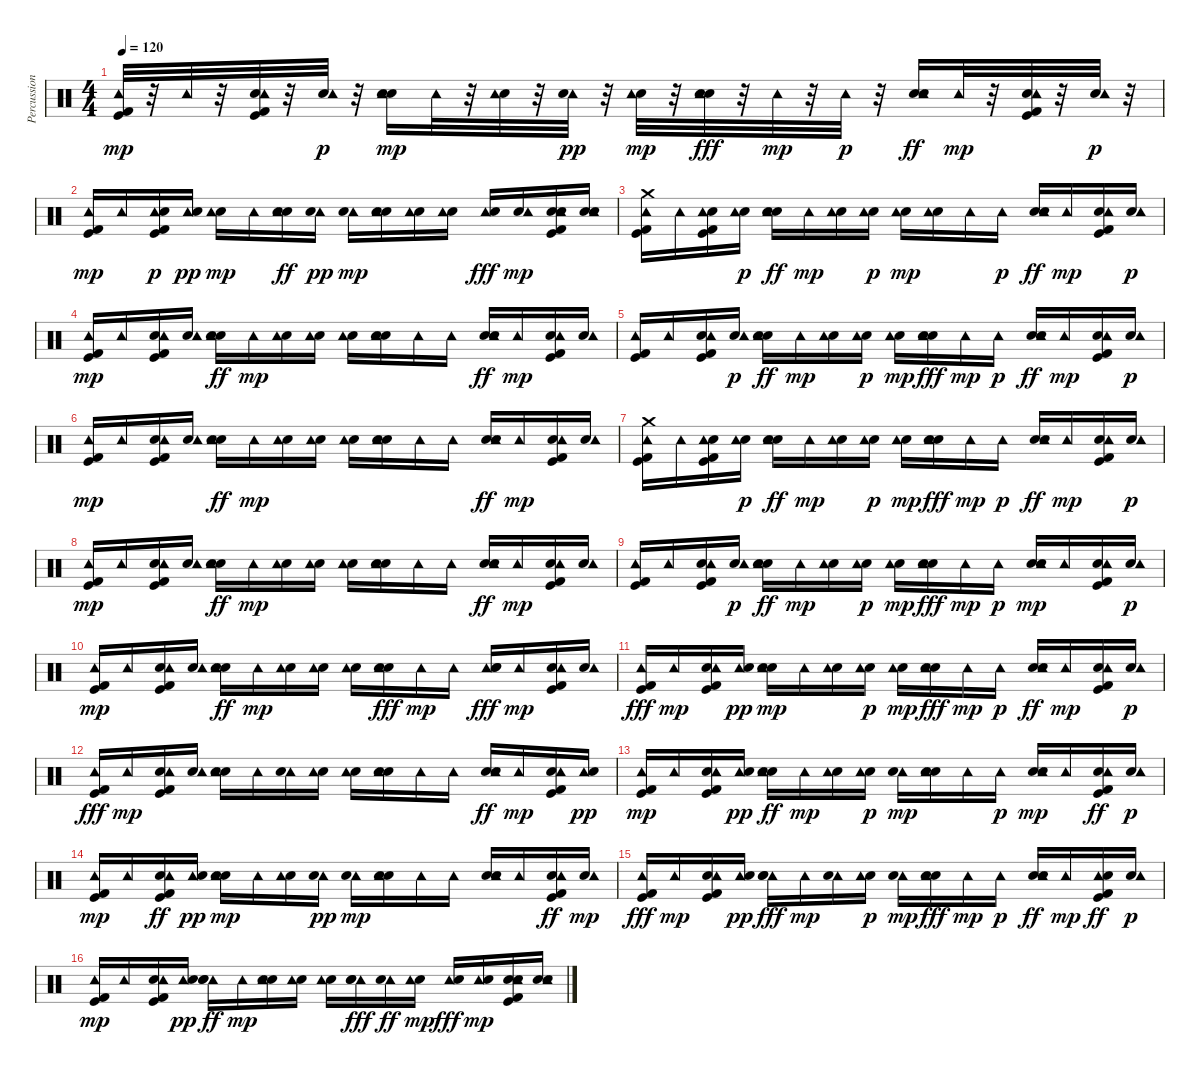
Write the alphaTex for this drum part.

\track ("Percussions" "Percussion") {instrument percussion}
\staff {score}
\articulation defaults
\ts (4 4)
\tempo 120
\clef neutral
\ks c
("Kick (hit) 2" "Kick (hit)" "Tambourine (hit)").32{dy mp} r.32 "Tambourine (hit)".32 r.32 ("Electric Snare (hit)" "Kick (hit)" "Kick (hit) 2" "Tambourine (hit)").32 r.32 ("Electric Snare (hit)" "Tambourine (hit)").32{dy p} r.32 ("Snare (hit) 2" "Electric Snare (hit)" "Tambourine (hit)").16{dy mp} "Tambourine (hit)".32 r.32 ("Electric Snare (hit)" "Tambourine (hit)").32 r.32 ("Tambourine (hit)" "Electric Snare (hit)").32{dy pp} r.32 ("Electric Snare (hit)" "Tambourine (hit)").32{dy mp} r.32 ("Electric Snare (hit)" "Tambourine (hit)" "Snare (hit) 2").32{dy fff} r.32 "Tambourine (hit)".32{dy mp} r.32 "Tambourine (hit)".32{dy p} r.32 ("Snare (hit) 2" "Tambourine (hit)" "Electric Snare (hit)").16{dy ff} "Tambourine (hit)".32{dy mp} r.32 ("Electric Snare (hit)" "Kick (hit) 2" "Kick (hit)" "Tambourine (hit)").32 r.32 ("Electric Snare (hit)" "Tambourine (hit)").32{dy p} r.32 |
("Kick (hit) 2" "Kick (hit)" "Tambourine (hit)").16{dy mp} "Tambourine (hit)".16 ("Tambourine (hit)" "Kick (hit) 2" "Kick (hit)" "Electric Snare (hit)").16{dy p} ("Tambourine (hit)" "Electric Snare (hit)").16{dy pp} ("Snare (hit) 2" "Tambourine (hit)").16{dy mp} "Tambourine (hit)".16 ("Electric Snare (hit)" "Tambourine (hit)" "Snare (hit) 2").16{dy ff} ("Tambourine (hit)" "Electric Snare (hit)").16{dy pp} ("Tambourine (hit)" "Electric Snare (hit)").16{dy mp} ("Snare (hit) 2" "Electric Snare (hit)" "Tambourine (hit)").16 ("Snare (hit) 2" "Tambourine (hit)").16 ("Snare (hit) 2" "Tambourine (hit)").16 ("Tambourine (hit)" "Snare (hit) 2").16{dy fff} ("Snare (hit) 2" "Tambourine (hit)").16{dy mp} ("Kick (hit) 2" "Electric Snare (hit)" "Snare (hit) 2" "Kick (hit)" "Tambourine (hit)").16 ("Snare (hit) 2" "Electric Snare (hit)" "Tambourine (hit)").16 |
("Kick (hit) 2" "Kick (hit)" "Crash medium (hit)" "Tambourine (hit)").16 "Tambourine (hit)".16 ("Electric Snare (hit)" "Kick (hit) 2" "Kick (hit)" "Tambourine (hit)").16 ("Electric Snare (hit)" "Tambourine (hit)").16{dy p} ("Snare (hit) 2" "Tambourine (hit)" "Electric Snare (hit)").16{dy ff} "Tambourine (hit)".16{dy mp} ("Electric Snare (hit)" "Tambourine (hit)").16 ("Electric Snare (hit)" "Tambourine (hit)").16{dy p} ("Electric Snare (hit)" "Tambourine (hit)").16{dy mp} ("Electric Snare (hit)" "Tambourine (hit)").16 "Tambourine (hit)".16 "Tambourine (hit)".16{dy p} ("Snare (hit) 2" "Tambourine (hit)" "Electric Snare (hit)").16{dy ff} "Tambourine (hit)".16{dy mp} ("Electric Snare (hit)" "Kick (hit) 2" "Kick (hit)" "Tambourine (hit)").16 ("Electric Snare (hit)" "Tambourine (hit)").16{dy p} |
("Kick (hit) 2" "Kick (hit)" "Tambourine (hit)").16{dy mp} "Tambourine (hit)".16 ("Electric Snare (hit)" "Kick (hit) 2" "Kick (hit)" "Tambourine (hit)").16 ("Electric Snare (hit)" "Tambourine (hit)").16 ("Snare (hit) 2" "Tambourine (hit)" "Electric Snare (hit)").16{dy ff} "Tambourine (hit)".16{dy mp} ("Electric Snare (hit)" "Tambourine (hit)").16 ("Electric Snare (hit)" "Tambourine (hit)").16 ("Electric Snare (hit)" "Tambourine (hit)").16 ("Electric Snare (hit)" "Snare (hit) 2" "Tambourine (hit)").16 "Tambourine (hit)".16 "Tambourine (hit)".16 ("Snare (hit) 2" "Tambourine (hit)" "Electric Snare (hit)").16{dy ff} "Tambourine (hit)".16{dy mp} ("Electric Snare (hit)" "Kick (hit) 2" "Kick (hit)" "Tambourine (hit)").16 ("Electric Snare (hit)" "Tambourine (hit)").16 |
("Kick (hit) 2" "Kick (hit)" "Tambourine (hit)").16 "Tambourine (hit)".16 ("Electric Snare (hit)" "Kick (hit) 2" "Kick (hit)" "Tambourine (hit)").16 ("Electric Snare (hit)" "Tambourine (hit)").16{dy p} ("Snare (hit) 2" "Tambourine (hit)" "Electric Snare (hit)").16{dy ff} "Tambourine (hit)".16{dy mp} ("Electric Snare (hit)" "Tambourine (hit)").16 ("Electric Snare (hit)" "Tambourine (hit)").16{dy p} ("Electric Snare (hit)" "Tambourine (hit)").16{dy mp} ("Electric Snare (hit)" "Tambourine (hit)" "Snare (hit) 2").16{dy fff} "Tambourine (hit)".16{dy mp} "Tambourine (hit)".16{dy p} ("Snare (hit) 2" "Tambourine (hit)" "Electric Snare (hit)").16{dy ff} "Tambourine (hit)".16{dy mp} ("Electric Snare (hit)" "Kick (hit) 2" "Kick (hit)" "Tambourine (hit)").16 ("Electric Snare (hit)" "Tambourine (hit)").16{dy p} |
("Kick (hit) 2" "Kick (hit)" "Tambourine (hit)").16{dy mp} "Tambourine (hit)".16 ("Electric Snare (hit)" "Kick (hit) 2" "Kick (hit)" "Tambourine (hit)").16 ("Electric Snare (hit)" "Tambourine (hit)").16 ("Snare (hit) 2" "Tambourine (hit)" "Electric Snare (hit)").16{dy ff} "Tambourine (hit)".16{dy mp} ("Electric Snare (hit)" "Tambourine (hit)").16 ("Electric Snare (hit)" "Tambourine (hit)").16 ("Electric Snare (hit)" "Tambourine (hit)").16 ("Electric Snare (hit)" "Snare (hit) 2" "Tambourine (hit)").16 "Tambourine (hit)".16 "Tambourine (hit)".16 ("Snare (hit) 2" "Tambourine (hit)" "Electric Snare (hit)").16{dy ff} "Tambourine (hit)".16{dy mp} ("Electric Snare (hit)" "Kick (hit) 2" "Kick (hit)" "Tambourine (hit)").16 ("Electric Snare (hit)" "Tambourine (hit)").16 |
("Kick (hit) 2" "Kick (hit)" "Crash medium (hit)" "Tambourine (hit)").16 "Tambourine (hit)".16 ("Electric Snare (hit)" "Kick (hit) 2" "Kick (hit)" "Tambourine (hit)").16 ("Electric Snare (hit)" "Tambourine (hit)").16{dy p} ("Snare (hit) 2" "Tambourine (hit)" "Electric Snare (hit)").16{dy ff} "Tambourine (hit)".16{dy mp} ("Electric Snare (hit)" "Tambourine (hit)").16 ("Electric Snare (hit)" "Tambourine (hit)").16{dy p} ("Electric Snare (hit)" "Tambourine (hit)").16{dy mp} ("Electric Snare (hit)" "Tambourine (hit)" "Snare (hit) 2").16{dy fff} "Tambourine (hit)".16{dy mp} "Tambourine (hit)".16{dy p} ("Snare (hit) 2" "Tambourine (hit)" "Electric Snare (hit)").16{dy ff} "Tambourine (hit)".16{dy mp} ("Electric Snare (hit)" "Kick (hit) 2" "Kick (hit)" "Tambourine (hit)").16 ("Electric Snare (hit)" "Tambourine (hit)").16{dy p} |
("Kick (hit) 2" "Kick (hit)" "Tambourine (hit)").16{dy mp} "Tambourine (hit)".16 ("Electric Snare (hit)" "Kick (hit) 2" "Kick (hit)" "Tambourine (hit)").16 ("Electric Snare (hit)" "Tambourine (hit)").16 ("Snare (hit) 2" "Tambourine (hit)" "Electric Snare (hit)").16{dy ff} "Tambourine (hit)".16{dy mp} ("Electric Snare (hit)" "Tambourine (hit)").16 ("Electric Snare (hit)" "Tambourine (hit)").16 ("Electric Snare (hit)" "Tambourine (hit)").16 ("Electric Snare (hit)" "Snare (hit) 2" "Tambourine (hit)").16 "Tambourine (hit)".16 "Tambourine (hit)".16 ("Snare (hit) 2" "Tambourine (hit)" "Electric Snare (hit)").16{dy ff} "Tambourine (hit)".16{dy mp} ("Electric Snare (hit)" "Kick (hit) 2" "Kick (hit)" "Tambourine (hit)").16 ("Electric Snare (hit)" "Tambourine (hit)").16 |
("Kick (hit) 2" "Kick (hit)" "Tambourine (hit)").16 "Tambourine (hit)".16 ("Electric Snare (hit)" "Kick (hit) 2" "Kick (hit)" "Tambourine (hit)").16 ("Electric Snare (hit)" "Tambourine (hit)").16{dy p} ("Snare (hit) 2" "Tambourine (hit)" "Electric Snare (hit)").16{dy ff} "Tambourine (hit)".16{dy mp} ("Electric Snare (hit)" "Tambourine (hit)").16 ("Electric Snare (hit)" "Tambourine (hit)").16{dy p} ("Electric Snare (hit)" "Tambourine (hit)").16{dy mp} ("Electric Snare (hit)" "Tambourine (hit)" "Snare (hit) 2").16{dy fff} "Tambourine (hit)".16{dy mp} "Tambourine (hit)".16{dy p} ("Snare (hit) 2" "Electric Snare (hit)" "Tambourine (hit)").16{dy mp} "Tambourine (hit)".16 ("Electric Snare (hit)" "Kick (hit)" "Kick (hit) 2" "Tambourine (hit)").16 ("Electric Snare (hit)" "Tambourine (hit)").16{dy p} |
("Kick (hit) 2" "Kick (hit)" "Tambourine (hit)").16{dy mp} "Tambourine (hit)".16 ("Electric Snare (hit)" "Kick (hit) 2" "Kick (hit)" "Tambourine (hit)").16 ("Electric Snare (hit)" "Tambourine (hit)").16 ("Snare (hit) 2" "Tambourine (hit)" "Electric Snare (hit)").16{dy ff} "Tambourine (hit)".16{dy mp} ("Electric Snare (hit)" "Tambourine (hit)").16 ("Electric Snare (hit)" "Tambourine (hit)").16 ("Electric Snare (hit)" "Tambourine (hit)").16 ("Electric Snare (hit)" "Tambourine (hit)" "Snare (hit) 2").16{dy fff} "Tambourine (hit)".16{dy mp} "Tambourine (hit)".16 ("Tambourine (hit)" "Electric Snare (hit)" "Snare (hit) 2").16{dy fff} "Tambourine (hit)".16{dy mp} ("Kick (hit)" "Electric Snare (hit)" "Kick (hit) 2" "Tambourine (hit)").16 ("Electric Snare (hit)" "Tambourine (hit)").16 |
("Tambourine (hit)" "Kick (hit) 2" "Kick (hit)").16{dy fff} "Tambourine (hit)".16{dy mp} ("Kick (hit)" "Electric Snare (hit)" "Kick (hit) 2" "Tambourine (hit)").16 ("Tambourine (hit)" "Electric Snare (hit)").16{dy pp} ("Electric Snare (hit)" "Snare (hit) 2" "Tambourine (hit)").16{dy mp} "Tambourine (hit)".16 ("Electric Snare (hit)" "Tambourine (hit)").16 ("Electric Snare (hit)" "Tambourine (hit)").16{dy p} ("Electric Snare (hit)" "Tambourine (hit)").16{dy mp} ("Electric Snare (hit)" "Tambourine (hit)" "Snare (hit) 2").16{dy fff} "Tambourine (hit)".16{dy mp} "Tambourine (hit)".16{dy p} ("Snare (hit) 2" "Tambourine (hit)" "Electric Snare (hit)").16{dy ff} "Tambourine (hit)".16{dy mp} ("Electric Snare (hit)" "Kick (hit) 2" "Kick (hit)" "Tambourine (hit)").16 ("Electric Snare (hit)" "Tambourine (hit)").16{dy p} |
("Tambourine (hit)" "Kick (hit) 2" "Kick (hit)").16{dy fff} "Tambourine (hit)".16{dy mp} ("Kick (hit) 2" "Electric Snare (hit)" "Kick (hit)" "Tambourine (hit)").16 ("Electric Snare (hit)" "Tambourine (hit)").16 ("Electric Snare (hit)" "Snare (hit) 2" "Tambourine (hit)").16 "Tambourine (hit)".16 ("Tambourine (hit)" "Electric Snare (hit)").16 ("Electric Snare (hit)" "Tambourine (hit)").16 ("Electric Snare (hit)" "Tambourine (hit)").16 ("Snare (hit) 2" "Electric Snare (hit)" "Tambourine (hit)").16 "Tambourine (hit)".16 "Tambourine (hit)".16 ("Snare (hit) 2" "Tambourine (hit)" "Electric Snare (hit)").16{dy ff} "Tambourine (hit)".16{dy mp} ("Kick (hit)" "Electric Snare (hit)" "Kick (hit) 2" "Tambourine (hit)").16 ("Tambourine (hit)" "Electric Snare (hit)").16{dy pp} |
("Kick (hit) 2" "Kick (hit)" "Tambourine (hit)").16{dy mp} "Tambourine (hit)".16 ("Kick (hit)" "Electric Snare (hit)" "Kick (hit) 2" "Tambourine (hit)").16 ("Tambourine (hit)" "Electric Snare (hit)").16{dy pp} ("Snare (hit) 2" "Tambourine (hit)" "Electric Snare (hit)").16{dy ff} "Tambourine (hit)".16{dy mp} ("Electric Snare (hit)" "Tambourine (hit)").16 ("Electric Snare (hit)" "Tambourine (hit)").16{dy p} ("Tambourine (hit)" "Electric Snare (hit)").16{dy mp} ("Snare (hit) 2" "Electric Snare (hit)" "Tambourine (hit)").16 "Tambourine (hit)".16 "Tambourine (hit)".16{dy p} ("Snare (hit) 2" "Electric Snare (hit)" "Tambourine (hit)").16{dy mp} "Tambourine (hit)".16 ("Electric Snare (hit)" "Tambourine (hit)" "Kick (hit)" "Kick (hit) 2").16{dy ff} ("Electric Snare (hit)" "Tambourine (hit)").16{dy p} |
("Kick (hit)" "Kick (hit) 2" "Tambourine (hit)").16{dy mp} "Tambourine (hit)".16 ("Electric Snare (hit)" "Kick (hit)" "Tambourine (hit)" "Kick (hit) 2").16{dy ff} ("Tambourine (hit)" "Electric Snare (hit)").16{dy pp} ("Snare (hit) 2" "Electric Snare (hit)" "Tambourine (hit)").16{dy mp} "Tambourine (hit)".16 ("Electric Snare (hit)" "Tambourine (hit)").16 ("Tambourine (hit)" "Electric Snare (hit)").16{dy pp} ("Tambourine (hit)" "Electric Snare (hit)").16{dy mp} ("Electric Snare (hit)" "Snare (hit) 2" "Tambourine (hit)").16 "Tambourine (hit)".16 "Tambourine (hit)".16 ("Electric Snare (hit)" "Snare (hit) 2" "Tambourine (hit)").16 "Tambourine (hit)".16 ("Electric Snare (hit)" "Kick (hit)" "Tambourine (hit)" "Kick (hit) 2").16{dy ff} ("Electric Snare (hit)" "Tambourine (hit)").16{dy mp} |
("Tambourine (hit)" "Kick (hit) 2" "Kick (hit)").16{dy fff} "Tambourine (hit)".16{dy mp} ("Kick (hit) 2" "Electric Snare (hit)" "Kick (hit)" "Tambourine (hit)").16 ("Tambourine (hit)" "Electric Snare (hit)").16{dy pp} ("Tambourine (hit)" "Electric Snare (hit)" "Snare (hit) 2").16{dy fff} "Tambourine (hit)".16{dy mp} ("Tambourine (hit)" "Electric Snare (hit)").16 ("Electric Snare (hit)" "Tambourine (hit)").16{dy p} ("Tambourine (hit)" "Electric Snare (hit)").16{dy mp} ("Electric Snare (hit)" "Tambourine (hit)" "Snare (hit) 2").16{dy fff} "Tambourine (hit)".16{dy mp} "Tambourine (hit)".16{dy p} ("Snare (hit) 2" "Tambourine (hit)" "Electric Snare (hit)").16{dy ff} "Tambourine (hit)".16{dy mp} ("Tambourine (hit)" "Electric Snare (hit)" "Kick (hit) 2" "Kick (hit)").16{dy ff} ("Electric Snare (hit)" "Tambourine (hit)").16{dy p} |
("Kick (hit) 2" "Kick (hit)" "Tambourine (hit)").16{dy mp} "Tambourine (hit)".16 ("Kick (hit)" "Electric Snare (hit)" "Kick (hit) 2" "Tambourine (hit)").16 ("Tambourine (hit)" "Electric Snare (hit)").16{dy pp} ("Tambourine (hit)" "Snare (hit) 2" "Electric Snare (hit)").16{dy ff} "Tambourine (hit)".16{dy mp} ("Snare (hit) 2" "Electric Snare (hit)" "Tambourine (hit)").16 ("Electric Snare (hit)" "Tambourine (hit)").16 ("Electric Snare (hit)" "Tambourine (hit)").16 ("Tambourine (hit)" "Electric Snare (hit)" "Snare (hit) 2").16{dy fff} ("Tambourine (hit)" "Snare (hit) 2").16{dy ff} ("Snare (hit) 2" "Tambourine (hit)").16{dy mp} ("Tambourine (hit)" "Snare (hit) 2").16{dy fff} ("Tambourine (hit)" "Snare (hit) 2").16{dy mp} ("Snare (hit) 2" "Electric Snare (hit)" "Kick (hit) 2" "Kick (hit)" "Tambourine (hit)").16 ("Snare (hit) 2" "Electric Snare (hit)" "Tambourine (hit)").16
